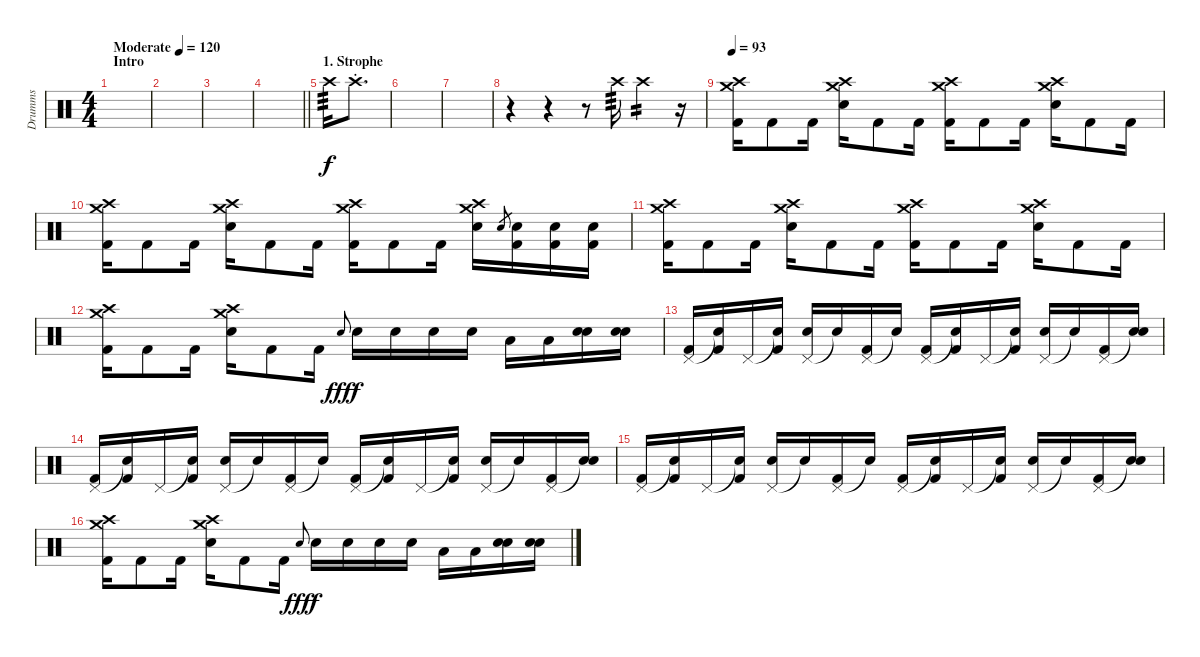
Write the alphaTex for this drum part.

\track ("Drumms" "Drumms") {instrument percussion}
\staff {score}
\articulation defaults
\ts (4 4)
\section ("" "Intro")
\tempo (120 "Moderate")
\tempo 89
\tempo (120 "Moderate")
\clef neutral
\ks c
|
|
|
\barLineRight lightlight
|
\section ("" "1. Strophe")
"Crash high (hit)".16{tp 3} "Crash high (hit)"{st}.8{d} |
|
|
r.4 r.4 r.8 "Crash high (hit)".16{tp 3} "Crash high (hit)".4{tp 2} r.16 |
\tempo 95
\tempo 93
("Crash medium (hit)" "Crash high (hit)" "Kick (hit) 2").16 "Kick (hit) 2".8 "Kick (hit) 2".16 ("Crash medium (hit)" "Crash high (hit)" "Electric Snare (hit)").16 "Kick (hit) 2".8 "Kick (hit) 2".16 ("Crash medium (hit)" "Crash high (hit)" "Kick (hit) 2").16 "Kick (hit) 2".8 "Kick (hit) 2".16 ("Crash medium (hit)" "Crash high (hit)" "Electric Snare (hit)").16 "Kick (hit) 2".8 "Kick (hit) 2".16 |
("Crash medium (hit)" "Crash high (hit)" "Kick (hit) 2").16 "Kick (hit) 2".8 "Kick (hit) 2".16 ("Crash medium (hit)" "Crash high (hit)" "Electric Snare (hit)").16 "Kick (hit) 2".8 "Kick (hit) 2".16 ("Crash medium (hit)" "Crash high (hit)" "Kick (hit) 2").16 "Kick (hit) 2".8 "Kick (hit) 2".16 ("Crash medium (hit)" "Crash high (hit)" "Electric Snare (hit)").16 "Electric Snare (hit)"{h}.8{gr} ("Electric Snare (hit)" "Kick (hit) 2").16 ("Electric Snare (hit)" "Kick (hit) 2").16 ("Electric Snare (hit)" "Kick (hit) 2").16 |
("Crash medium (hit)" "Crash high (hit)" "Kick (hit) 2").16 "Kick (hit) 2".8 "Kick (hit) 2".16 ("Crash medium (hit)" "Crash high (hit)" "Electric Snare (hit)").16 "Kick (hit) 2".8 "Kick (hit) 2".16 ("Crash medium (hit)" "Crash high (hit)" "Kick (hit) 2").16 "Kick (hit) 2".8 "Kick (hit) 2".16 ("Crash medium (hit)" "Crash high (hit)" "Electric Snare (hit)").16 "Kick (hit) 2".8 "Kick (hit) 2".16 |
("Crash medium (hit)" "Crash high (hit)" "Kick (hit) 2").16 "Kick (hit) 2".8 "Kick (hit) 2".16 ("Crash medium (hit)" "Crash high (hit)" "Electric Snare (hit)").16 "Kick (hit) 2".8 "Kick (hit) 2".16 "Electric Snare (hit)".8{gr onbeat dy fff} "Electric Snare (hit)".16{dy f} "Electric Snare (hit)".16 "Snare (hit) 2".16 "Snare (hit) 2".16 "Low Tom (hit)".16 "Low Tom (hit)".16 ("Electric Snare (hit)" "Snare (hit) 2").16 ("Electric Snare (hit)" "Snare (hit) 2").16 |
("Pedal Hi-Hat (hit)" "Kick (hit) 2").16 ("Snare (hit)"{t} "Kick (hit) 2").16 "Pedal Hi-Hat (hit)".16 ("Snare (hit)"{t} "Kick (hit) 2").16 ("Pedal Hi-Hat (hit)" "Electric Snare (hit)").16 "Snare (hit)"{t}.16 ("Pedal Hi-Hat (hit)" "Kick (hit) 2").16 "Snare (hit)"{t}.16 ("Pedal Hi-Hat (hit)" "Kick (hit) 2").16 ("Snare (hit)"{t} "Kick (hit) 2").16 "Pedal Hi-Hat (hit)".16 ("Snare (hit)"{t} "Kick (hit) 2").16 ("Pedal Hi-Hat (hit)" "Electric Snare (hit)").16 "Snare (hit)"{t}.16 ("Pedal Hi-Hat (hit)" "Kick (hit) 2").16 ("Snare (hit)"{t} "Electric Snare (hit)").16 |
("Pedal Hi-Hat (hit)" "Kick (hit) 2").16 ("Snare (hit)"{t} "Kick (hit) 2").16 "Pedal Hi-Hat (hit)".16 ("Snare (hit)"{t} "Kick (hit) 2").16 ("Pedal Hi-Hat (hit)" "Electric Snare (hit)").16 "Snare (hit)"{t}.16 ("Pedal Hi-Hat (hit)" "Kick (hit) 2").16 "Snare (hit)"{t}.16 ("Pedal Hi-Hat (hit)" "Kick (hit) 2").16 ("Snare (hit)"{t} "Kick (hit) 2").16 "Pedal Hi-Hat (hit)".16 ("Snare (hit)"{t} "Kick (hit) 2").16 ("Pedal Hi-Hat (hit)" "Electric Snare (hit)").16 "Snare (hit)"{t}.16 ("Pedal Hi-Hat (hit)" "Kick (hit) 2").16 ("Snare (hit)"{t} "Electric Snare (hit)").16 |
("Pedal Hi-Hat (hit)" "Kick (hit) 2").16 ("Snare (hit)"{t} "Kick (hit) 2").16 "Pedal Hi-Hat (hit)".16 ("Snare (hit)"{t} "Kick (hit) 2").16 ("Pedal Hi-Hat (hit)" "Electric Snare (hit)").16 "Snare (hit)"{t}.16 ("Pedal Hi-Hat (hit)" "Kick (hit) 2").16 "Snare (hit)"{t}.16 ("Pedal Hi-Hat (hit)" "Kick (hit) 2").16 ("Snare (hit)"{t} "Kick (hit) 2").16 "Pedal Hi-Hat (hit)".16 ("Snare (hit)"{t} "Kick (hit) 2").16 ("Pedal Hi-Hat (hit)" "Electric Snare (hit)").16 "Snare (hit)"{t}.16 ("Pedal Hi-Hat (hit)" "Kick (hit) 2").16 ("Snare (hit)"{t} "Electric Snare (hit)").16 |
("Crash medium (hit)" "Crash high (hit)" "Kick (hit) 2").16 "Kick (hit) 2".8 "Kick (hit) 2".16 ("Crash medium (hit)" "Crash high (hit)" "Electric Snare (hit)").16 "Kick (hit) 2".8 "Kick (hit) 2".16 "Electric Snare (hit)".8{gr onbeat dy fff} "Electric Snare (hit)".16{dy f} "Electric Snare (hit)".16 "Snare (hit) 2".16 "Snare (hit) 2".16 "Low Tom (hit)".16 "Low Tom (hit)".16 ("Electric Snare (hit)" "Snare (hit) 2").16 ("Electric Snare (hit)" "Snare (hit) 2").16
